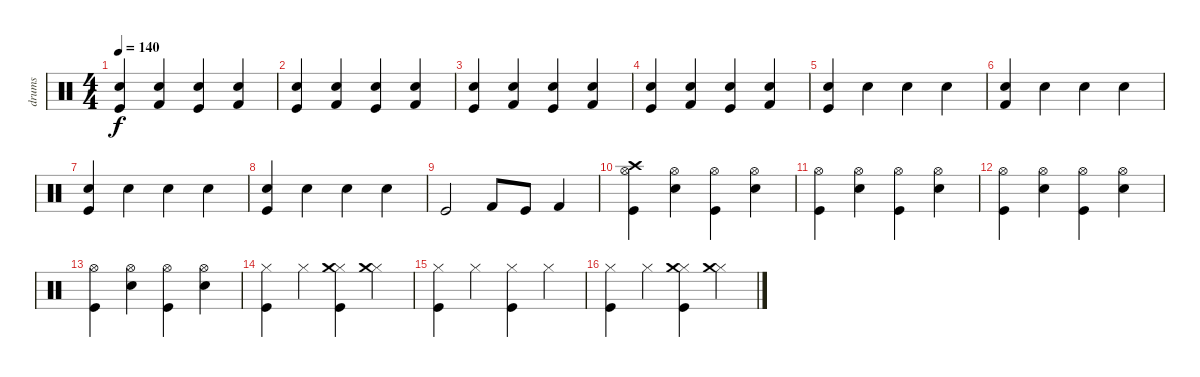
\track ("drums" "drums") {instrument percussion}
\staff {score}
\articulation defaults
\ts (4 4)
\tempo 140
\clef neutral
\ks c
("Snare (hit) 2" "Kick (hit)").4{dy f} ("Snare (hit) 2" "Kick (hit) 2").4 ("Snare (hit) 2" "Kick (hit)").4 ("Snare (hit) 2" "Kick (hit) 2").4 |
("Snare (hit) 2" "Kick (hit)").4 ("Snare (hit) 2" "Kick (hit) 2").4 ("Snare (hit) 2" "Kick (hit)").4 ("Snare (hit) 2" "Kick (hit) 2").4 |
("Snare (hit) 2" "Kick (hit)").4 ("Snare (hit) 2" "Kick (hit) 2").4 ("Snare (hit) 2" "Kick (hit)").4 ("Snare (hit) 2" "Kick (hit) 2").4 |
("Snare (hit) 2" "Kick (hit)").4 ("Snare (hit) 2" "Kick (hit) 2").4 ("Snare (hit) 2" "Kick (hit)").4 ("Snare (hit) 2" "Kick (hit) 2").4 |
("Snare (hit) 2" "Kick (hit)").4 "Snare (hit) 2".4 "Snare (hit) 2".4 "Snare (hit) 2".4 |
("Snare (hit) 2" "Kick (hit) 2").4 "Snare (hit) 2".4 "Snare (hit) 2".4 "Snare (hit) 2".4 |
("Snare (hit) 2" "Kick (hit)").4 "Snare (hit) 2".4 "Snare (hit) 2".4 "Snare (hit) 2".4 |
("Snare (hit) 2" "Kick (hit)").4 "Snare (hit) 2".4 "Snare (hit) 2".4 "Snare (hit) 2".4 |
"Kick (hit)".2 "Kick (hit) 2".8 "Kick (hit)".8 "Kick (hit) 2".4 |
("Hi-Hat (open)" "Kick (hit)" "Crash high (hit)").4 ("Hi-Hat (open)" "Snare (hit) 2").4 ("Hi-Hat (open)" "Kick (hit)").4 ("Hi-Hat (open)" "Snare (hit) 2").4 |
("Hi-Hat (open)" "Kick (hit)").4 ("Hi-Hat (open)" "Snare (hit) 2").4 ("Hi-Hat (open)" "Kick (hit)").4 ("Hi-Hat (open)" "Snare (hit) 2").4 |
("Hi-Hat (open)" "Kick (hit)").4 ("Hi-Hat (open)" "Snare (hit) 2").4 ("Hi-Hat (open)" "Kick (hit)").4 ("Hi-Hat (open)" "Snare (hit) 2").4 |
("Hi-Hat (open)" "Kick (hit)").4 ("Hi-Hat (open)" "Snare (hit) 2").4 ("Hi-Hat (open)" "Kick (hit)").4 ("Hi-Hat (open)" "Snare (hit) 2").4 |
("Hi-Hat (closed)" "Kick (hit)").4 "Hi-Hat (closed)".4 ("Hi-Hat (closed)" "Kick (hit)" "Crash medium (hit)").4 ("Hi-Hat (closed)" "Crash medium (hit)").4 |
("Hi-Hat (closed)" "Kick (hit)").4 "Hi-Hat (closed)".4 ("Hi-Hat (closed)" "Kick (hit)").4 "Hi-Hat (closed)".4 |
("Hi-Hat (closed)" "Kick (hit)").4 "Hi-Hat (closed)".4 ("Hi-Hat (closed)" "Kick (hit)" "Crash medium (hit)").4 ("Hi-Hat (closed)" "Crash medium (hit)").4
